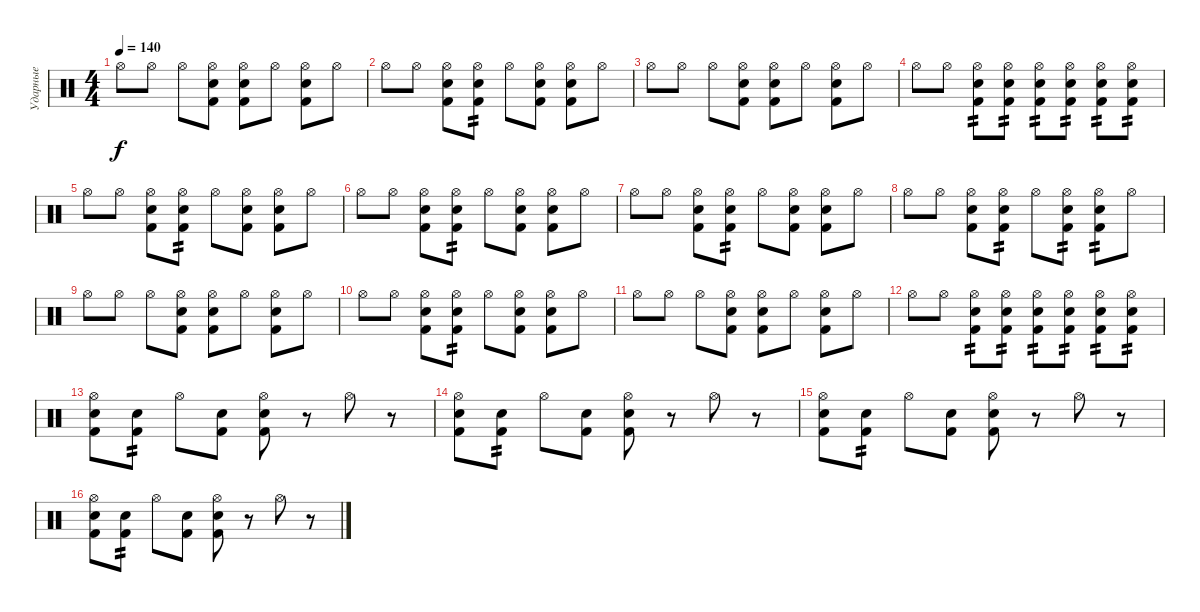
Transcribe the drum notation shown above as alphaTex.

\track ("Ударные" "Ударные") {instrument percussion}
\staff {score}
\articulation defaults
\ts (4 4)
\tempo 140
\clef neutral
\ks c "Hi-Hat (open)".8{dy f} "Hi-Hat (open)".8 "Hi-Hat (open)".8
("Snare (hit) 2" "Kick (hit) 2" "Hi-Hat (open)").8 ("Snare (hit) 2" "Kick (hit) 2" "Hi-Hat (open)").8 "Hi-Hat (open)".8 ("Electric Snare (hit)" "Kick (hit) 2" "Hi-Hat (open)").8 "Hi-Hat (open)".8 |
"Hi-Hat (open)".8 "Hi-Hat (open)".8 ("Snare (hit) 2" "Kick (hit) 2" "Hi-Hat (open)").8 ("Snare (hit) 2" "Kick (hit) 2" "Hi-Hat (open)").8{tp 2} "Hi-Hat (open)".8 ("Snare (hit) 2" "Kick (hit) 2" "Hi-Hat (open)").8 ("Snare (hit) 2" "Kick (hit) 2" "Hi-Hat (open)").8 "Hi-Hat (open)".8 |
"Hi-Hat (open)".8 "Hi-Hat (open)".8 "Hi-Hat (open)".8 ("Snare (hit) 2" "Kick (hit) 2" "Hi-Hat (open)").8 ("Snare (hit) 2" "Kick (hit) 2" "Hi-Hat (open)").8 "Hi-Hat (open)".8 ("Electric Snare (hit)" "Kick (hit) 2" "Hi-Hat (open)").8 "Hi-Hat (open)".8 |
"Hi-Hat (open)".8 "Hi-Hat (open)".8 ("Snare (hit) 2" "Kick (hit) 2" "Hi-Hat (open)").8{tp 2} ("Snare (hit) 2" "Kick (hit) 2" "Hi-Hat (open)").8{tp 2} ("Snare (hit) 2" "Kick (hit) 2" "Hi-Hat (open)").8{tp 2} ("Snare (hit) 2" "Kick (hit) 2" "Hi-Hat (open)").8{tp 2} ("Snare (hit) 2" "Kick (hit) 2" "Hi-Hat (open)").8{tp 2} ("Snare (hit) 2" "Kick (hit) 2" "Hi-Hat (open)").8{tp 2} |
"Hi-Hat (open)".8 "Hi-Hat (open)".8 ("Snare (hit) 2" "Kick (hit) 2" "Hi-Hat (open)").8 ("Snare (hit) 2" "Kick (hit) 2" "Hi-Hat (open)").8{tp 2} "Hi-Hat (open)".8 ("Snare (hit) 2" "Kick (hit) 2" "Hi-Hat (open)").8 ("Snare (hit) 2" "Kick (hit) 2" "Hi-Hat (open)").8 "Hi-Hat (open)".8 |
"Hi-Hat (open)".8 "Hi-Hat (open)".8 ("Snare (hit) 2" "Kick (hit) 2" "Hi-Hat (open)").8 ("Snare (hit) 2" "Kick (hit) 2" "Hi-Hat (open)").8{tp 2} "Hi-Hat (open)".8 ("Snare (hit) 2" "Kick (hit) 2" "Hi-Hat (open)").8 ("Snare (hit) 2" "Kick (hit) 2" "Hi-Hat (open)").8 "Hi-Hat (open)".8 |
"Hi-Hat (open)".8 "Hi-Hat (open)".8 ("Snare (hit) 2" "Kick (hit) 2" "Hi-Hat (open)").8 ("Snare (hit) 2" "Kick (hit) 2" "Hi-Hat (open)").8{tp 2} "Hi-Hat (open)".8 ("Snare (hit) 2" "Kick (hit) 2" "Hi-Hat (open)").8 ("Snare (hit) 2" "Kick (hit) 2" "Hi-Hat (open)").8 "Hi-Hat (open)".8 |
"Hi-Hat (open)".8 "Hi-Hat (open)".8 ("Snare (hit) 2" "Kick (hit) 2" "Hi-Hat (open)").8 ("Snare (hit) 2" "Kick (hit) 2" "Hi-Hat (open)").8{tp 2} "Hi-Hat (open)".8 ("Snare (hit) 2" "Kick (hit) 2" "Hi-Hat (open)").8{tp 2} ("Snare (hit) 2" "Kick (hit) 2" "Hi-Hat (open)").8{tp 2} "Hi-Hat (open)".8 |
"Hi-Hat (open)".8 "Hi-Hat (open)".8 "Hi-Hat (open)".8 ("Snare (hit) 2" "Kick (hit) 2" "Hi-Hat (open)").8 ("Snare (hit) 2" "Kick (hit) 2" "Hi-Hat (open)").8 "Hi-Hat (open)".8 ("Electric Snare (hit)" "Kick (hit) 2" "Hi-Hat (open)").8 "Hi-Hat (open)".8 |
"Hi-Hat (open)".8 "Hi-Hat (open)".8 ("Snare (hit) 2" "Kick (hit) 2" "Hi-Hat (open)").8 ("Snare (hit) 2" "Kick (hit) 2" "Hi-Hat (open)").8{tp 2} "Hi-Hat (open)".8 ("Snare (hit) 2" "Kick (hit) 2" "Hi-Hat (open)").8 ("Snare (hit) 2" "Kick (hit) 2" "Hi-Hat (open)").8 "Hi-Hat (open)".8 |
"Hi-Hat (open)".8 "Hi-Hat (open)".8 "Hi-Hat (open)".8 ("Snare (hit) 2" "Kick (hit) 2" "Hi-Hat (open)").8 ("Snare (hit) 2" "Kick (hit) 2" "Hi-Hat (open)").8 "Hi-Hat (open)".8 ("Electric Snare (hit)" "Kick (hit) 2" "Hi-Hat (open)").8 "Hi-Hat (open)".8 |
"Hi-Hat (open)".8 "Hi-Hat (open)".8 ("Snare (hit) 2" "Kick (hit) 2" "Hi-Hat (open)").8{tp 2} ("Snare (hit) 2" "Kick (hit) 2" "Hi-Hat (open)").8{tp 2} ("Snare (hit) 2" "Kick (hit) 2" "Hi-Hat (open)").8{tp 2} ("Snare (hit) 2" "Kick (hit) 2" "Hi-Hat (open)").8{tp 2} ("Snare (hit) 2" "Kick (hit) 2" "Hi-Hat (open)").8{tp 2} ("Snare (hit) 2" "Kick (hit) 2" "Hi-Hat (open)").8{tp 2} |
("Snare (hit) 2" "Kick (hit) 2" "Hi-Hat (open)").8 ("Snare (hit) 2" "Kick (hit) 2").8{tp 2} "Hi-Hat (open)".8 ("Snare (hit) 2" "Kick (hit) 2").8 ("Snare (hit) 2" "Kick (hit) 2" "Hi-Hat (open)").8 r.8 "Hi-Hat (open)".8 r.8 |
("Snare (hit) 2" "Kick (hit) 2" "Hi-Hat (open)").8 ("Snare (hit) 2" "Kick (hit) 2").8{tp 2} "Hi-Hat (open)".8 ("Snare (hit) 2" "Kick (hit) 2").8 ("Snare (hit) 2" "Kick (hit) 2" "Hi-Hat (open)").8 r.8 "Hi-Hat (open)".8 r.8 |
("Snare (hit) 2" "Kick (hit) 2" "Hi-Hat (open)").8 ("Snare (hit) 2" "Kick (hit) 2").8{tp 2} "Hi-Hat (open)".8 ("Snare (hit) 2" "Kick (hit) 2").8 ("Snare (hit) 2" "Kick (hit) 2" "Hi-Hat (open)").8 r.8 "Hi-Hat (open)".8 r.8 |
("Snare (hit) 2" "Kick (hit) 2" "Hi-Hat (open)").8 ("Snare (hit) 2" "Kick (hit) 2").8{tp 2} "Hi-Hat (open)".8 ("Snare (hit) 2" "Kick (hit) 2").8 ("Snare (hit) 2" "Kick (hit) 2" "Hi-Hat (open)").8 r.8 "Hi-Hat (open)".8 r.8
